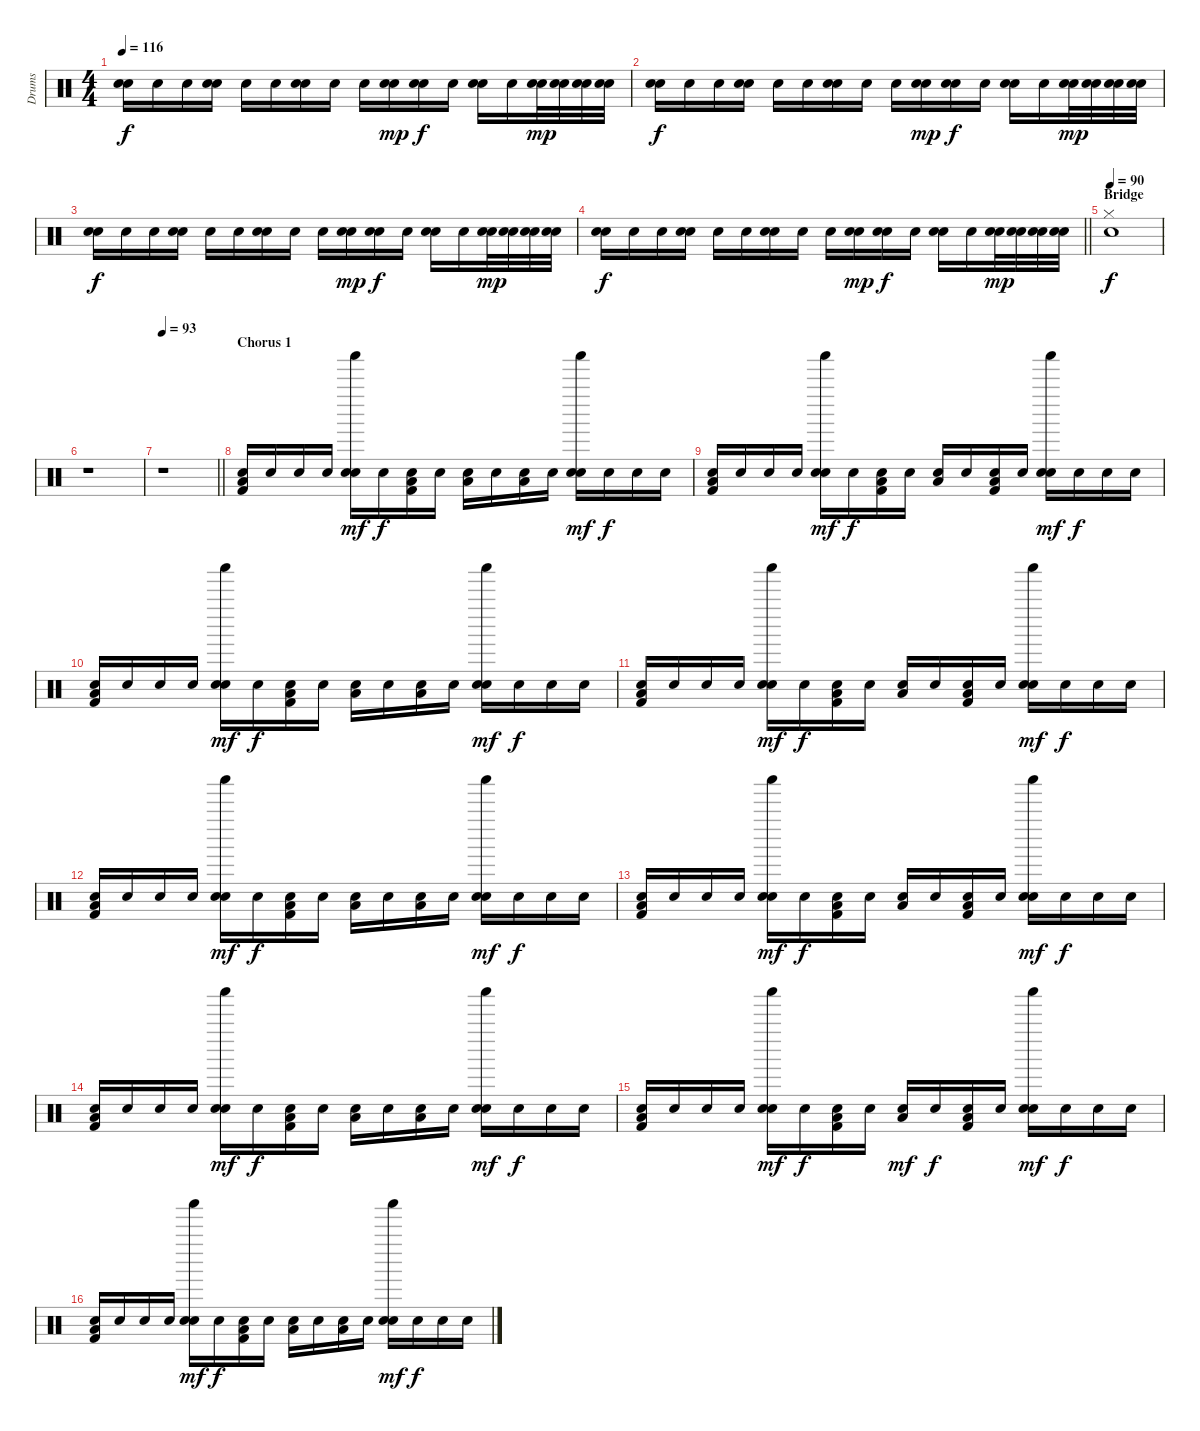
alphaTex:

\track ("Drums" "Drums") {instrument percussion}
\staff {score}
\articulation defaults
\ts (4 4)
\tempo 116
\clef neutral
\ks c
("Snare (hit)" "Electric Snare (hit)").16{dy f} "Snare (hit)".16 "Snare (hit)".16 ("Snare (hit)" "Electric Snare (hit)").16 "Snare (hit)".16 "Snare (hit)".16 ("Snare (hit)" "Electric Snare (hit)").16 "Snare (hit)".16 "Snare (hit)".16 ("Snare (hit)" "Electric Snare (hit)").16{dy mp} ("Snare (hit)" "Electric Snare (hit)").16{dy f} "Snare (hit)".16 ("Snare (hit)" "Electric Snare (hit)").16 "Snare (hit)".16 ("Snare (hit)" "Electric Snare (hit)").32{dy mp} ("Snare (hit)" "Electric Snare (hit)").32 ("Snare (hit)" "Electric Snare (hit)").32 ("Snare (hit)" "Electric Snare (hit)").32 |
("Snare (hit)" "Electric Snare (hit)").16{dy f} "Snare (hit)".16 "Snare (hit)".16 ("Snare (hit)" "Electric Snare (hit)").16 "Snare (hit)".16 "Snare (hit)".16 ("Snare (hit)" "Electric Snare (hit)").16 "Snare (hit)".16 "Snare (hit)".16 ("Snare (hit)" "Electric Snare (hit)").16{dy mp} ("Snare (hit)" "Electric Snare (hit)").16{dy f} "Snare (hit)".16 ("Snare (hit)" "Electric Snare (hit)").16 "Snare (hit)".16 ("Snare (hit)" "Electric Snare (hit)").32{dy mp} ("Snare (hit)" "Electric Snare (hit)").32 ("Snare (hit)" "Electric Snare (hit)").32 ("Snare (hit)" "Electric Snare (hit)").32 |
("Snare (hit)" "Electric Snare (hit)").16{dy f} "Snare (hit)".16 "Snare (hit)".16 ("Snare (hit)" "Electric Snare (hit)").16 "Snare (hit)".16 "Snare (hit)".16 ("Snare (hit)" "Electric Snare (hit)").16 "Snare (hit)".16 "Snare (hit)".16 ("Snare (hit)" "Electric Snare (hit)").16{dy mp} ("Snare (hit)" "Electric Snare (hit)").16{dy f} "Snare (hit)".16 ("Snare (hit)" "Electric Snare (hit)").16 "Snare (hit)".16 ("Snare (hit)" "Electric Snare (hit)").32{dy mp} ("Snare (hit)" "Electric Snare (hit)").32 ("Snare (hit)" "Electric Snare (hit)").32 ("Snare (hit)" "Electric Snare (hit)").32 |
\barLineRight lightlight
("Snare (hit)" "Electric Snare (hit)").16{dy f} "Snare (hit)".16 "Snare (hit)".16 ("Snare (hit)" "Electric Snare (hit)").16 "Snare (hit)".16 "Snare (hit)".16 ("Snare (hit)" "Electric Snare (hit)").16 "Snare (hit)".16 "Snare (hit)".16 ("Snare (hit)" "Electric Snare (hit)").16{dy mp} ("Snare (hit)" "Electric Snare (hit)").16{dy f} "Snare (hit)".16 ("Snare (hit)" "Electric Snare (hit)").16 "Snare (hit)".16 ("Snare (hit)" "Electric Snare (hit)").32{dy mp} ("Snare (hit)" "Electric Snare (hit)").32 ("Snare (hit)" "Electric Snare (hit)").32 ("Snare (hit)" "Electric Snare (hit)").32 |
\section ("" "Bridge")
\tempo 90
("Snare (hit)" "Hi-Hat (closed)").1{dy f} |
r.1 |
\tempo 93
\barLineRight lightlight
r.1 |
\section ("" "Chorus 1")
("Snare (hit)" "Low Tom (hit)" "Kick (hit) 2").16 "Snare (hit)".16 "Snare (hit)".16 "Snare (hit)".16 ("Snare (hit)" "Shaker (hit)" "Electric Snare (hit)").16{dy mf} "Snare (hit)".16{dy f} ("Snare (hit)" "Low Tom (hit)" "Kick (hit) 2").16 "Snare (hit)".16 ("Snare (hit)" "Low Tom (hit)").16 "Snare (hit)".16 ("Snare (hit)" "Low Tom (hit)").16 "Snare (hit)".16 ("Snare (hit)" "Shaker (hit)" "Electric Snare (hit)").16{dy mf} "Snare (hit)".16{dy f} "Snare (hit)".16 "Snare (hit)".16 |
("Snare (hit)" "Low Tom (hit)" "Kick (hit) 2").16 "Snare (hit)".16 "Snare (hit)".16 "Snare (hit)".16 ("Snare (hit)" "Shaker (hit)" "Electric Snare (hit)").16{dy mf} "Snare (hit)".16{dy f} ("Snare (hit)" "Low Tom (hit)" "Kick (hit) 2").16 "Snare (hit)".16 ("Snare (hit)" "Low Tom (hit)").16 "Snare (hit)".16 ("Snare (hit)" "Low Tom (hit)" "Kick (hit) 2").16 "Snare (hit)".16 ("Snare (hit)" "Shaker (hit)" "Electric Snare (hit)").16{dy mf} "Snare (hit)".16{dy f} "Snare (hit)".16 "Snare (hit)".16 |
("Snare (hit)" "Low Tom (hit)" "Kick (hit) 2").16 "Snare (hit)".16 "Snare (hit)".16 "Snare (hit)".16 ("Snare (hit)" "Shaker (hit)" "Electric Snare (hit)").16{dy mf} "Snare (hit)".16{dy f} ("Snare (hit)" "Low Tom (hit)" "Kick (hit) 2").16 "Snare (hit)".16 ("Snare (hit)" "Low Tom (hit)").16 "Snare (hit)".16 ("Snare (hit)" "Low Tom (hit)").16 "Snare (hit)".16 ("Snare (hit)" "Shaker (hit)" "Electric Snare (hit)").16{dy mf} "Snare (hit)".16{dy f} "Snare (hit)".16 "Snare (hit)".16 |
("Snare (hit)" "Low Tom (hit)" "Kick (hit) 2").16 "Snare (hit)".16 "Snare (hit)".16 "Snare (hit)".16 ("Snare (hit)" "Shaker (hit)" "Electric Snare (hit)").16{dy mf} "Snare (hit)".16{dy f} ("Snare (hit)" "Low Tom (hit)" "Kick (hit) 2").16 "Snare (hit)".16 ("Snare (hit)" "Low Tom (hit)").16 "Snare (hit)".16 ("Snare (hit)" "Low Tom (hit)" "Kick (hit) 2").16 "Snare (hit)".16 ("Snare (hit)" "Shaker (hit)" "Electric Snare (hit)").16{dy mf} "Snare (hit)".16{dy f} "Snare (hit)".16 "Snare (hit)".16 |
("Snare (hit)" "Low Tom (hit)" "Kick (hit) 2").16 "Snare (hit)".16 "Snare (hit)".16 "Snare (hit)".16 ("Snare (hit)" "Shaker (hit)" "Electric Snare (hit)").16{dy mf} "Snare (hit)".16{dy f} ("Snare (hit)" "Low Tom (hit)" "Kick (hit) 2").16 "Snare (hit)".16 ("Snare (hit)" "Low Tom (hit)").16 "Snare (hit)".16 ("Snare (hit)" "Low Tom (hit)").16 "Snare (hit)".16 ("Snare (hit)" "Shaker (hit)" "Electric Snare (hit)").16{dy mf} "Snare (hit)".16{dy f} "Snare (hit)".16 "Snare (hit)".16 |
("Snare (hit)" "Low Tom (hit)" "Kick (hit) 2").16 "Snare (hit)".16 "Snare (hit)".16 "Snare (hit)".16 ("Snare (hit)" "Shaker (hit)" "Electric Snare (hit)").16{dy mf} "Snare (hit)".16{dy f} ("Snare (hit)" "Low Tom (hit)" "Kick (hit) 2").16 "Snare (hit)".16 ("Snare (hit)" "Low Tom (hit)").16 "Snare (hit)".16 ("Snare (hit)" "Low Tom (hit)" "Kick (hit) 2").16 "Snare (hit)".16 ("Snare (hit)" "Shaker (hit)" "Electric Snare (hit)").16{dy mf} "Snare (hit)".16{dy f} "Snare (hit)".16 "Snare (hit)".16 |
("Snare (hit)" "Low Tom (hit)" "Kick (hit) 2").16 "Snare (hit)".16 "Snare (hit)".16 "Snare (hit)".16 ("Snare (hit)" "Shaker (hit)" "Electric Snare (hit)").16{dy mf} "Snare (hit)".16{dy f} ("Snare (hit)" "Low Tom (hit)" "Kick (hit) 2").16 "Snare (hit)".16 ("Snare (hit)" "Low Tom (hit)").16 "Snare (hit)".16 ("Snare (hit)" "Low Tom (hit)").16 "Snare (hit)".16 ("Snare (hit)" "Shaker (hit)" "Electric Snare (hit)").16{dy mf} "Snare (hit)".16{dy f} "Snare (hit)".16 "Snare (hit)".16 |
("Snare (hit)" "Low Tom (hit)" "Kick (hit) 2").16 "Snare (hit)".16 "Snare (hit)".16 "Snare (hit)".16 ("Snare (hit)" "Shaker (hit)" "Electric Snare (hit)").16{dy mf} "Snare (hit)".16{dy f} ("Snare (hit)" "Low Tom (hit)" "Kick (hit) 2").16 "Snare (hit)".16 ("Snare (hit)" "Low Tom (hit)").16{dy mf} "Snare (hit)".16{dy f} ("Snare (hit)" "Low Tom (hit)" "Kick (hit) 2").16 "Snare (hit)".16 ("Snare (hit)" "Shaker (hit)" "Electric Snare (hit)").16{dy mf} "Snare (hit)".16{dy f} "Snare (hit)".16 "Snare (hit)".16 |
("Snare (hit)" "Low Tom (hit)" "Kick (hit) 2").16 "Snare (hit)".16 "Snare (hit)".16 "Snare (hit)".16 ("Snare (hit)" "Shaker (hit)" "Electric Snare (hit)").16{dy mf} "Snare (hit)".16{dy f} ("Snare (hit)" "Low Tom (hit)" "Kick (hit) 2").16 "Snare (hit)".16 ("Snare (hit)" "Low Tom (hit)").16 "Snare (hit)".16 ("Snare (hit)" "Low Tom (hit)").16 "Snare (hit)".16 ("Snare (hit)" "Shaker (hit)" "Electric Snare (hit)").16{dy mf} "Snare (hit)".16{dy f} "Snare (hit)".16 "Snare (hit)".16
